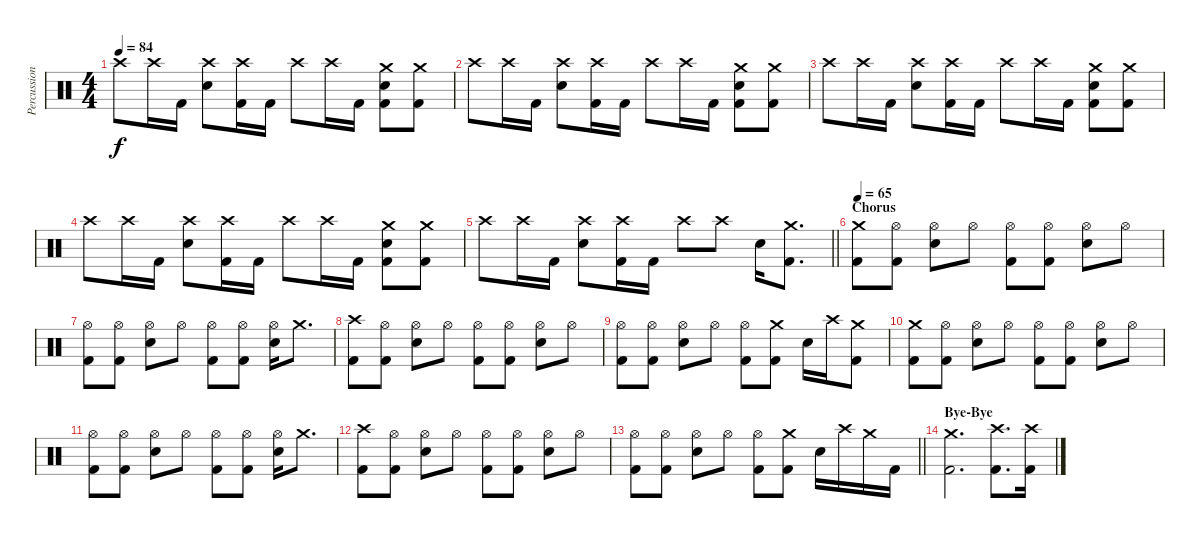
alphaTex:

\track ("Percussion" "Percussion") {instrument percussion}
\staff {score}
\articulation defaults
\ts (4 4)
\tempo 84
\clef neutral
\ks c "Crash high (hit)".8{dy f} "Crash high (hit)".16 "Kick (hit) 2".16
("Crash high (hit)" "Electric Snare (hit)").8 ("Crash high (hit)" "Kick (hit) 2").16 "Kick (hit) 2".16 "Crash high (hit)".8 "Crash high (hit)".16 "Kick (hit) 2".16 ("Crash medium (hit)" "Electric Snare (hit)" "Kick (hit) 2").8 ("Crash medium (hit)" "Kick (hit) 2").8 |
"Crash high (hit)".8 "Crash high (hit)".16 "Kick (hit) 2".16 ("Crash high (hit)" "Electric Snare (hit)").8 ("Crash high (hit)" "Kick (hit) 2").16 "Kick (hit) 2".16 "Crash high (hit)".8 "Crash high (hit)".16 "Kick (hit) 2".16 ("Crash medium (hit)" "Electric Snare (hit)" "Kick (hit) 2").8 ("Crash medium (hit)" "Kick (hit) 2").8 |
"Crash high (hit)".8 "Crash high (hit)".16 "Kick (hit) 2".16 ("Crash high (hit)" "Electric Snare (hit)").8 ("Crash high (hit)" "Kick (hit) 2").16 "Kick (hit) 2".16 "Crash high (hit)".8 "Crash high (hit)".16 "Kick (hit) 2".16 ("Crash medium (hit)" "Electric Snare (hit)" "Kick (hit) 2").8 ("Crash medium (hit)" "Kick (hit) 2").8 |
"Crash high (hit)".8 "Crash high (hit)".16 "Kick (hit) 2".16 ("Crash high (hit)" "Electric Snare (hit)").8 ("Crash high (hit)" "Kick (hit) 2").16 "Kick (hit) 2".16 "Crash high (hit)".8 "Crash high (hit)".16 "Kick (hit) 2".16 ("Crash medium (hit)" "Electric Snare (hit)" "Kick (hit) 2").8 ("Crash medium (hit)" "Kick (hit) 2").8 |
\barLineRight lightlight "Crash high (hit)".8 "Crash high (hit)".16 "Kick (hit) 2".16
("Crash high (hit)" "Electric Snare (hit)").8 ("Crash high (hit)" "Kick (hit) 2").16 "Kick (hit) 2".16 "Crash high (hit)".8 "Crash high (hit)".8 "Electric Snare (hit)".16 ("Crash medium (hit)" "Kick (hit) 2").8{d} |
\section ("" "Chorus ")
\tempo 65
("Crash medium (hit)" "Kick (hit) 2").8 ("Hi-Hat (open)" "Kick (hit) 2").8 ("Hi-Hat (open)" "Electric Snare (hit)").8 "Hi-Hat (open)".8 ("Hi-Hat (open)" "Kick (hit) 2").8 ("Hi-Hat (open)" "Kick (hit) 2").8 ("Hi-Hat (open)" "Electric Snare (hit)").8 "Hi-Hat (open)".8 |
("Hi-Hat (open)" "Kick (hit) 2").8 ("Hi-Hat (open)" "Kick (hit) 2").8 ("Hi-Hat (open)" "Electric Snare (hit)").8 "Hi-Hat (open)".8 ("Hi-Hat (open)" "Kick (hit) 2").8 ("Hi-Hat (open)" "Kick (hit) 2").8 ("Hi-Hat (open)" "Electric Snare (hit)").16 "Crash medium (hit)".8{d} |
("Crash high (hit)" "Kick (hit) 2").8 ("Hi-Hat (open)" "Kick (hit) 2").8 ("Hi-Hat (open)" "Electric Snare (hit)").8 "Hi-Hat (open)".8 ("Hi-Hat (open)" "Kick (hit) 2").8 ("Hi-Hat (open)" "Kick (hit) 2").8 ("Hi-Hat (open)" "Electric Snare (hit)").8 "Hi-Hat (open)".8 |
("Hi-Hat (open)" "Kick (hit) 2").8 ("Hi-Hat (open)" "Kick (hit) 2").8 ("Hi-Hat (open)" "Electric Snare (hit)").8 "Hi-Hat (open)".8 ("Hi-Hat (open)" "Kick (hit) 2").8 ("Crash medium (hit)" "Kick (hit) 2").8 "Electric Snare (hit)".16 "Crash high (hit)".16 ("Crash medium (hit)" "Kick (hit) 2").8 |
("Crash medium (hit)" "Kick (hit) 2").8 ("Hi-Hat (open)" "Kick (hit) 2").8 ("Hi-Hat (open)" "Electric Snare (hit)").8 "Hi-Hat (open)".8 ("Hi-Hat (open)" "Kick (hit) 2").8 ("Hi-Hat (open)" "Kick (hit) 2").8 ("Hi-Hat (open)" "Electric Snare (hit)").8 "Hi-Hat (open)".8 |
("Hi-Hat (open)" "Kick (hit) 2").8 ("Hi-Hat (open)" "Kick (hit) 2").8 ("Hi-Hat (open)" "Electric Snare (hit)").8 "Hi-Hat (open)".8 ("Hi-Hat (open)" "Kick (hit) 2").8 ("Hi-Hat (open)" "Kick (hit) 2").8 ("Hi-Hat (open)" "Electric Snare (hit)").16 "Crash medium (hit)".8{d} |
("Crash high (hit)" "Kick (hit) 2").8 ("Hi-Hat (open)" "Kick (hit) 2").8 ("Hi-Hat (open)" "Electric Snare (hit)").8 "Hi-Hat (open)".8 ("Hi-Hat (open)" "Kick (hit) 2").8 ("Hi-Hat (open)" "Kick (hit) 2").8 ("Hi-Hat (open)" "Electric Snare (hit)").8 "Hi-Hat (open)".8 |
\barLineRight lightlight
("Hi-Hat (open)" "Kick (hit) 2").8 ("Hi-Hat (open)" "Kick (hit) 2").8 ("Hi-Hat (open)" "Electric Snare (hit)").8 "Hi-Hat (open)".8 ("Hi-Hat (open)" "Kick (hit) 2").8 ("Crash medium (hit)" "Kick (hit) 2").8 "Electric Snare (hit)".16 "Crash high (hit)".16 "Crash medium (hit)".16 "Kick (hit) 2".16 |
\section ("" "Bye-Bye")
("Crash medium (hit)" "Kick (hit) 2").2{d} ("Crash high (hit)" "Kick (hit) 2").8{d} ("Crash high (hit)" "Kick (hit) 2").16
